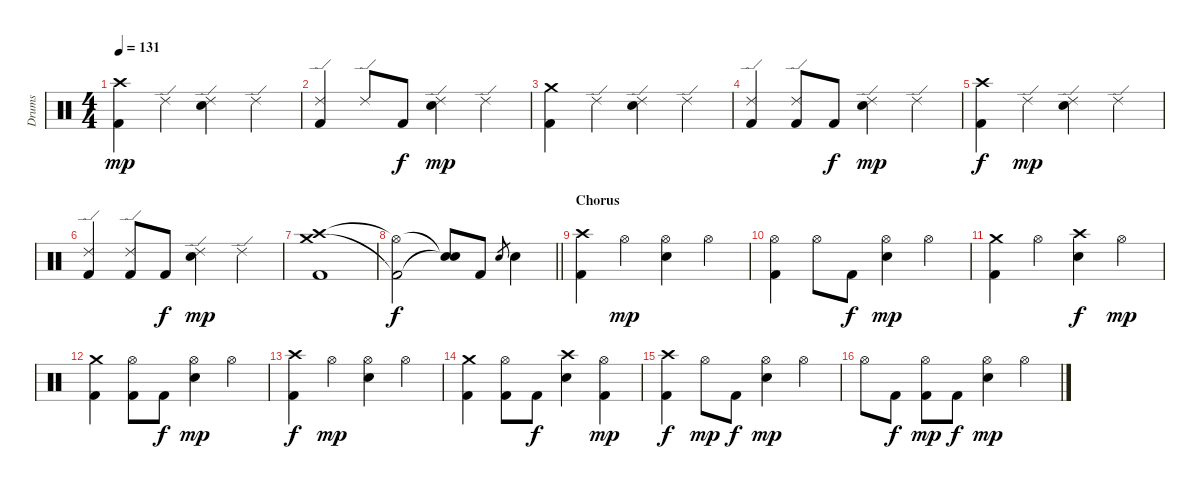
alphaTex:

\track ("Drums" "Drums") {instrument percussion}
\staff {score}
\articulation defaults
\ts (4 4)
\tempo 131
\clef neutral
\ks c
("Crash high (hit)" "Kick (hit) 2").4{dy mp} "Ride (edge) 2".4 ("Ride (edge) 2" "Electric Snare (hit)").4 "Ride (edge) 2".4 |
("Ride (edge) 2" "Kick (hit) 2").4 "Ride (edge) 2".8 "Kick (hit) 2".8{dy f} ("Ride (edge) 2" "Electric Snare (hit)").4{dy mp} "Ride (edge) 2".4 |
("Crash medium (hit)" "Kick (hit) 2").4 "Ride (edge) 2".4 ("Ride (edge) 2" "Electric Snare (hit)").4 "Ride (edge) 2".4 |
("Ride (edge) 2" "Kick (hit) 2").4 ("Ride (edge) 2" "Kick (hit) 2").8 "Kick (hit) 2".8{dy f} ("Ride (edge) 2" "Electric Snare (hit)").4{dy mp} "Ride (edge) 2".4 |
("Crash high (hit)" "Kick (hit) 2").4{dy f} "Ride (edge) 2".4{dy mp} ("Ride (edge) 2" "Electric Snare (hit)").4 "Ride (edge) 2".4 |
("Ride (edge) 2" "Kick (hit) 2").4 ("Ride (edge) 2" "Kick (hit) 2").8 "Kick (hit) 2".8{dy f} ("Ride (edge) 2" "Electric Snare (hit)").4{dy mp} "Ride (edge) 2".4 |
("Crash high (hit)" "Crash medium (hit)" "Kick (hit) 2").1 |
\barLineRight lightlight
("Hi-Hat (open)"{t} "Kick (hit) 2"{t}).2{dy f} ("Snare (hit)"{t} "Snare (hit)"{t}).8 "Kick (hit) 2".8 "Electric Snare (hit)".8{gr} "Electric Snare (hit)".4 |
\section ("" "Chorus")
("Crash high (hit)" "Kick (hit) 2").4 "Hi-Hat (open)".4{dy mp} ("Hi-Hat (open)" "Electric Snare (hit)").4 "Hi-Hat (open)".4 |
("Hi-Hat (open)" "Kick (hit) 2").4 "Hi-Hat (open)".8 "Kick (hit) 2".8{dy f} ("Hi-Hat (open)" "Electric Snare (hit)").4{dy mp} "Hi-Hat (open)".4 |
("Crash medium (hit)" "Kick (hit) 2").4 "Hi-Hat (open)".4 ("Crash high (hit)" "Electric Snare (hit)").4{dy f} "Hi-Hat (open)".4{dy mp} |
("Crash medium (hit)" "Kick (hit) 2").4 ("Hi-Hat (open)" "Kick (hit) 2").8 "Kick (hit) 2".8{dy f} ("Hi-Hat (open)" "Electric Snare (hit)").4{dy mp} "Hi-Hat (open)".4 |
("Crash high (hit)" "Kick (hit) 2").4{dy f} "Hi-Hat (open)".4{dy mp} ("Hi-Hat (open)" "Electric Snare (hit)").4 "Hi-Hat (open)".4 |
("Crash medium (hit)" "Kick (hit) 2").4 ("Hi-Hat (open)" "Kick (hit) 2").8 "Kick (hit) 2".8{dy f} ("Crash high (hit)" "Electric Snare (hit)").4 ("Hi-Hat (open)" "Kick (hit) 2").4{dy mp} |
("Crash high (hit)" "Kick (hit) 2").4{dy f} "Hi-Hat (open)".8{dy mp} "Kick (hit) 2".8{dy f} ("Hi-Hat (open)" "Electric Snare (hit)").4{dy mp} "Hi-Hat (open)".4 |
"Hi-Hat (open)".8 "Kick (hit) 2".8{dy f} ("Hi-Hat (open)" "Kick (hit) 2").8{dy mp} "Kick (hit) 2".8{dy f} ("Hi-Hat (open)" "Electric Snare (hit)").4{dy mp} "Hi-Hat (open)".4
